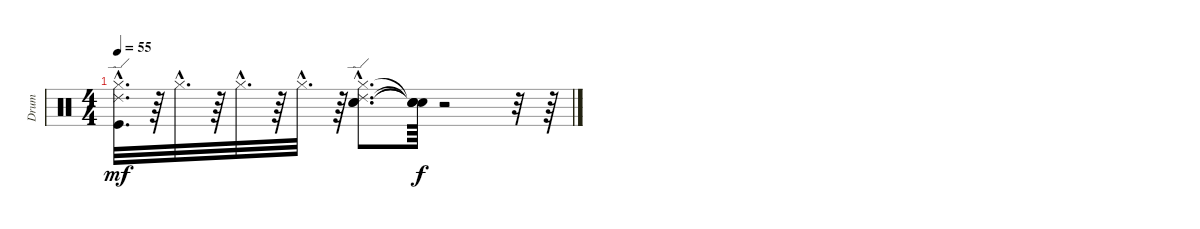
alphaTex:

\track ("Drum" "Drum") {instrument percussion}
\staff {score}
\articulation defaults
\ts (4 4)
\tempo 55
\clef neutral
\ks c
("Hi-Hat (closed)"{hac} "Kick (hit)"{hac} "Ride (edge) 2"{hac}).32{d dy mf} r.64 "Hi-Hat (closed)"{hac}.32{d} r.64 "Hi-Hat (closed)"{hac}.32{d} r.64 "Hi-Hat (closed)"{hac}.32{d} r.64 ("Electric Snare (hit)"{hac} "Ride (edge) 2"{hac} "Hi-Hat (closed)"{hac} "Snare (hit) 2"{hac}).8{d} ("Snare (hit)"{t} "Snare (hit)"{t} "Snare (hit)"{t} "Snare (hit)"{t}).64{dy f} r.2 r.32 r.64
